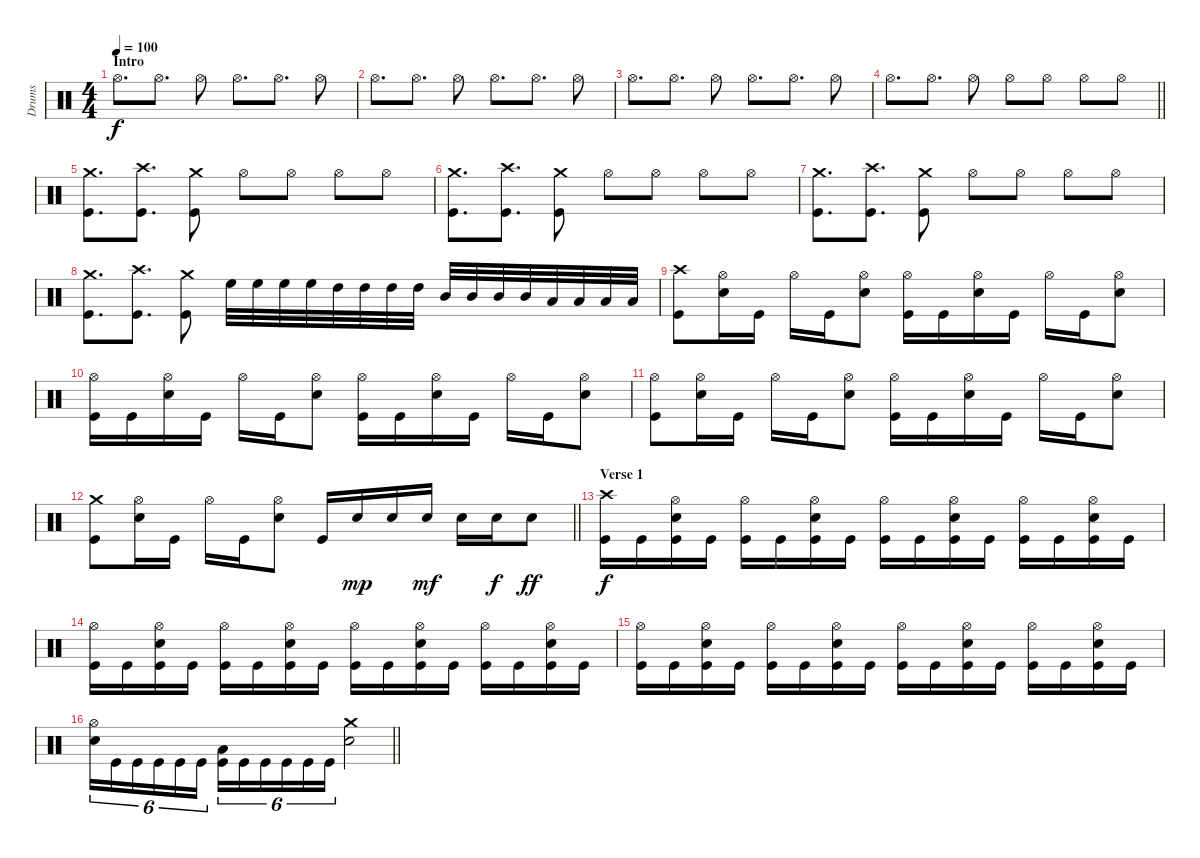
\track ("Drums" "Drums") {instrument percussion}
\staff {score}
\articulation defaults
\ts (4 4)
\section ("" "Intro")
\tempo 100
\clef neutral
\ks c "Hi-Hat (open)".8{d dy f} "Hi-Hat (open)".8{d} "Hi-Hat (open)".8 "Hi-Hat (open)".8{d} "Hi-Hat (open)".8{d} "Hi-Hat (open)".8
|
"Hi-Hat (open)".8{d} "Hi-Hat (open)".8{d} "Hi-Hat (open)".8 "Hi-Hat (open)".8{d} "Hi-Hat (open)".8{d} "Hi-Hat (open)".8 |
"Hi-Hat (open)".8{d} "Hi-Hat (open)".8{d} "Hi-Hat (open)".8 "Hi-Hat (open)".8{d} "Hi-Hat (open)".8{d} "Hi-Hat (open)".8 |
\barLineRight lightlight "Hi-Hat (open)".8{d} "Hi-Hat (open)".8{d} "Hi-Hat (open)".8 "Hi-Hat (open)".8 "Hi-Hat (open)".8 "Hi-Hat (open)".8 "Hi-Hat (open)".8
|
("Kick (hit)" "Crash medium (hit)").8{d} ("Kick (hit)" "Crash high (hit)").8{d} ("Kick (hit)" "Crash medium (hit)").8 "Hi-Hat (open)".8 "Hi-Hat (open)".8 "Hi-Hat (open)".8 "Hi-Hat (open)".8 |
("Kick (hit)" "Crash medium (hit)").8{d} ("Kick (hit)" "Crash high (hit)").8{d} ("Kick (hit)" "Crash medium (hit)").8 "Hi-Hat (open)".8 "Hi-Hat (open)".8 "Hi-Hat (open)".8 "Hi-Hat (open)".8 |
("Kick (hit)" "Crash medium (hit)").8{d} ("Kick (hit)" "Crash high (hit)").8{d} ("Kick (hit)" "Crash medium (hit)").8 "Hi-Hat (open)".8 "Hi-Hat (open)".8 "Hi-Hat (open)".8 "Hi-Hat (open)".8 |
("Kick (hit)" "Crash medium (hit)").8{d} ("Kick (hit)" "Crash high (hit)").8{d} ("Kick (hit)" "Crash medium (hit)").8 "High Floor Tom (hit)".32 "High Floor Tom (hit)".32 "High Floor Tom (hit)".32 "High Floor Tom (hit)".32 "High Tom (hit)".32 "High Tom (hit)".32 "High Tom (hit)".32 "High Tom (hit)".32 "Mid Tom (hit)".32 "Mid Tom (hit)".32 "Mid Tom (hit)".32 "Mid Tom (hit)".32 "Low Tom (hit)".32 "Low Tom (hit)".32 "Low Tom (hit)".32 "Low Tom (hit)".32 |
("Kick (hit)" "Crash high (hit)").8 ("Electric Snare (hit)" "Hi-Hat (open)").16 "Kick (hit)".16 "Hi-Hat (open)".16 "Kick (hit)".16 ("Electric Snare (hit)" "Hi-Hat (open)").8 ("Kick (hit)" "Hi-Hat (open)").16 "Kick (hit)".16 ("Electric Snare (hit)" "Hi-Hat (open)").16 "Kick (hit)".16 "Hi-Hat (open)".16 "Kick (hit)".16 ("Electric Snare (hit)" "Hi-Hat (open)").8 |
("Kick (hit)" "Hi-Hat (open)").16 "Kick (hit)".16 ("Electric Snare (hit)" "Hi-Hat (open)").16 "Kick (hit)".16 "Hi-Hat (open)".16 "Kick (hit)".16 ("Electric Snare (hit)" "Hi-Hat (open)").8 ("Kick (hit)" "Hi-Hat (open)").16 "Kick (hit)".16 ("Electric Snare (hit)" "Hi-Hat (open)").16 "Kick (hit)".16 "Hi-Hat (open)".16 "Kick (hit)".16 ("Electric Snare (hit)" "Hi-Hat (open)").8 |
("Kick (hit)" "Hi-Hat (open)").8 ("Electric Snare (hit)" "Hi-Hat (open)").16 "Kick (hit)".16 "Hi-Hat (open)".16 "Kick (hit)".16 ("Electric Snare (hit)" "Hi-Hat (open)").8 ("Kick (hit)" "Hi-Hat (open)").16 "Kick (hit)".16 ("Electric Snare (hit)" "Hi-Hat (open)").16 "Kick (hit)".16 "Hi-Hat (open)".16 "Kick (hit)".16 ("Electric Snare (hit)" "Hi-Hat (open)").8 |
\barLineRight lightlight
("Kick (hit)" "Crash medium (hit)").8 ("Electric Snare (hit)" "Hi-Hat (open)").16 "Kick (hit)".16 "Hi-Hat (open)".16 "Kick (hit)".16 ("Electric Snare (hit)" "Hi-Hat (open)").8 "Kick (hit)".16 "Electric Snare (hit)".16{dy mp} "Electric Snare (hit)".16 "Electric Snare (hit)".16{dy mf} "Electric Snare (hit)".16 "Electric Snare (hit)".16{dy f} "Electric Snare (hit)".8{dy ff} |
\section ("" "Verse 1")
("Kick (hit)" "Crash high (hit)").16{dy f} "Kick (hit)".16 ("Kick (hit)" "Electric Snare (hit)" "Hi-Hat (open)").16 "Kick (hit)".16 ("Kick (hit)" "Hi-Hat (open)").16 "Kick (hit)".16 ("Kick (hit)" "Electric Snare (hit)" "Hi-Hat (open)").16 "Kick (hit)".16 ("Kick (hit)" "Hi-Hat (open)").16 "Kick (hit)".16 ("Kick (hit)" "Electric Snare (hit)" "Hi-Hat (open)").16 "Kick (hit)".16 ("Kick (hit)" "Hi-Hat (open)").16 "Kick (hit)".16 ("Kick (hit)" "Electric Snare (hit)" "Hi-Hat (open)").16 "Kick (hit)".16 |
("Kick (hit)" "Hi-Hat (open)").16 "Kick (hit)".16 ("Kick (hit)" "Electric Snare (hit)" "Hi-Hat (open)").16 "Kick (hit)".16 ("Kick (hit)" "Hi-Hat (open)").16 "Kick (hit)".16 ("Kick (hit)" "Electric Snare (hit)" "Hi-Hat (open)").16 "Kick (hit)".16 ("Kick (hit)" "Hi-Hat (open)").16 "Kick (hit)".16 ("Kick (hit)" "Electric Snare (hit)" "Hi-Hat (open)").16 "Kick (hit)".16 ("Kick (hit)" "Hi-Hat (open)").16 "Kick (hit)".16 ("Kick (hit)" "Electric Snare (hit)" "Hi-Hat (open)").16 "Kick (hit)".16 |
("Kick (hit)" "Hi-Hat (open)").16 "Kick (hit)".16 ("Kick (hit)" "Electric Snare (hit)" "Hi-Hat (open)").16 "Kick (hit)".16 ("Kick (hit)" "Hi-Hat (open)").16 "Kick (hit)".16 ("Kick (hit)" "Electric Snare (hit)" "Hi-Hat (open)").16 "Kick (hit)".16 ("Kick (hit)" "Hi-Hat (open)").16 "Kick (hit)".16 ("Kick (hit)" "Electric Snare (hit)" "Hi-Hat (open)").16 "Kick (hit)".16 ("Kick (hit)" "Hi-Hat (open)").16 "Kick (hit)".16 ("Kick (hit)" "Electric Snare (hit)" "Hi-Hat (open)").16 "Kick (hit)".16 |
\barLineRight lightlight
("Electric Snare (hit)" "Hi-Hat (open)").16{tu (6 4)} "Kick (hit)".16{tu (6 4)} "Kick (hit)".16{tu (6 4)} "Kick (hit)".16{tu (6 4)} "Kick (hit)".16{tu (6 4)} "Kick (hit)".16{tu (6 4)} ("Kick (hit)" "Low Tom (hit)").16{tu (6 4) beam Down} "Kick (hit)".16{tu (6 4) beam Down} "Kick (hit)".16{tu (6 4) beam Down} "Kick (hit)".16{tu (6 4) beam Down} "Kick (hit)".16{tu (6 4) beam Down} "Kick (hit)".16{tu (6 4) beam Down} ("Electric Snare (hit)" "Crash medium (hit)").2
